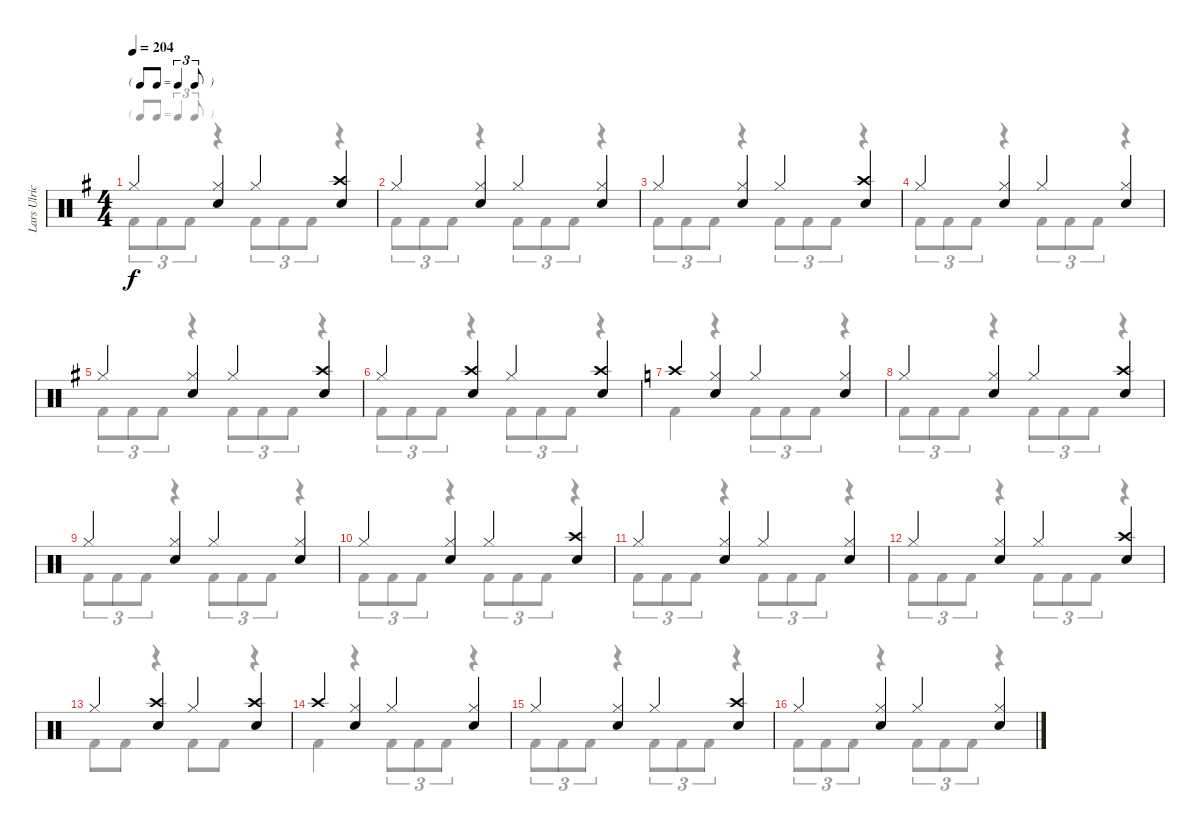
\track ("Lars Ulrich" "Lars Ulric") {instrument percussion}
\staff {score}
\articulation defaults
\voice
\ts (4 4)
\tf triplet8th
\tempo 204
\clef neutral
\ks eminor "Hi-Hat (closed)".4{dy f}
("Hi-Hat (closed)" "Snare (hit) 2").4 "Hi-Hat (closed)".4 ("Crash high (hit)" "Snare (hit) 2").4 |
"Hi-Hat (closed)".4 ("Hi-Hat (closed)" "Snare (hit) 2").4 "Hi-Hat (closed)".4 ("Hi-Hat (closed)" "Snare (hit) 2").4 |
"Hi-Hat (closed)".4 ("Hi-Hat (closed)" "Snare (hit) 2").4 "Hi-Hat (closed)".4 ("Crash high (hit)" "Snare (hit) 2").4 |
"Hi-Hat (closed)".4 ("Hi-Hat (closed)" "Snare (hit) 2").4 "Hi-Hat (closed)".4 ("Hi-Hat (closed)" "Snare (hit) 2").4 |
"Hi-Hat (closed)".4 ("Hi-Hat (closed)" "Snare (hit) 2").4 "Hi-Hat (closed)".4 ("Crash high (hit)" "Snare (hit) 2").4 |
"Hi-Hat (closed)".4 ("Crash high (hit)" "Snare (hit) 2").4 "Hi-Hat (closed)".4 ("Crash high (hit)" "Snare (hit) 2").4 |
\ks c "Crash high (hit)".4
("Hi-Hat (closed)" "Snare (hit) 2").4 "Hi-Hat (closed)".4 ("Hi-Hat (closed)" "Snare (hit) 2").4 |
"Hi-Hat (closed)".4 ("Hi-Hat (closed)" "Snare (hit) 2").4 "Hi-Hat (closed)".4 ("Crash high (hit)" "Snare (hit) 2").4 |
"Hi-Hat (closed)".4 ("Hi-Hat (closed)" "Snare (hit) 2").4 "Hi-Hat (closed)".4 ("Hi-Hat (closed)" "Snare (hit) 2").4 |
"Hi-Hat (closed)".4 ("Hi-Hat (closed)" "Snare (hit) 2").4 "Hi-Hat (closed)".4 ("Crash high (hit)" "Snare (hit) 2").4 |
"Hi-Hat (closed)".4 ("Hi-Hat (closed)" "Snare (hit) 2").4 "Hi-Hat (closed)".4 ("Hi-Hat (closed)" "Snare (hit) 2").4 |
"Hi-Hat (closed)".4 ("Hi-Hat (closed)" "Snare (hit) 2").4 "Hi-Hat (closed)".4 ("Crash high (hit)" "Snare (hit) 2").4 |
"Hi-Hat (closed)".4 ("Crash high (hit)" "Snare (hit) 2").4 "Hi-Hat (closed)".4 ("Crash high (hit)" "Snare (hit) 2").4 |
"Crash high (hit)".4 ("Hi-Hat (closed)" "Snare (hit) 2").4 "Hi-Hat (closed)".4 ("Hi-Hat (closed)" "Snare (hit) 2").4 |
"Hi-Hat (closed)".4 ("Hi-Hat (closed)" "Snare (hit) 2").4 "Hi-Hat (closed)".4 ("Crash high (hit)" "Snare (hit) 2").4 |
"Hi-Hat (closed)".4 ("Hi-Hat (closed)" "Snare (hit) 2").4 "Hi-Hat (closed)".4 ("Hi-Hat (closed)" "Snare (hit) 2").4
\voice
\clef neutral
\ottava regular
\simile none
\ks eminor "Kick (hit) 2".8{tu (3 2) dy f} "Kick (hit) 2".8{tu (3 2)} "Kick (hit) 2".8{tu (3 2)}
r.4 "Kick (hit) 2".8{tu (3 2)} "Kick (hit) 2".8{tu (3 2)} "Kick (hit) 2".8{tu (3 2)} r.4 |
"Kick (hit) 2".8{tu (3 2)} "Kick (hit) 2".8{tu (3 2)} "Kick (hit) 2".8{tu (3 2)} r.4 "Kick (hit) 2".8{tu (3 2)} "Kick (hit) 2".8{tu (3 2)} "Kick (hit) 2".8{tu (3 2)} r.4 |
"Kick (hit) 2".8{tu (3 2)} "Kick (hit) 2".8{tu (3 2)} "Kick (hit) 2".8{tu (3 2)} r.4 "Kick (hit) 2".8{tu (3 2)} "Kick (hit) 2".8{tu (3 2)} "Kick (hit) 2".8{tu (3 2)} r.4 |
"Kick (hit) 2".8{tu (3 2)} "Kick (hit) 2".8{tu (3 2)} "Kick (hit) 2".8{tu (3 2)} r.4 "Kick (hit) 2".8{tu (3 2)} "Kick (hit) 2".8{tu (3 2)} "Kick (hit) 2".8{tu (3 2)} r.4 |
"Kick (hit) 2".8{tu (3 2)} "Kick (hit) 2".8{tu (3 2)} "Kick (hit) 2".8{tu (3 2)} r.4 "Kick (hit) 2".8{tu (3 2)} "Kick (hit) 2".8{tu (3 2)} "Kick (hit) 2".8{tu (3 2)} r.4 |
"Kick (hit) 2".8{tu (3 2)} "Kick (hit) 2".8{tu (3 2)} "Kick (hit) 2".8{tu (3 2)} r.4 "Kick (hit) 2".8{tu (3 2)} "Kick (hit) 2".8{tu (3 2)} "Kick (hit) 2".8{tu (3 2)} r.4 |
\ks c "Kick (hit) 2".4
r.4 "Kick (hit) 2".8{tu (3 2)} "Kick (hit) 2".8{tu (3 2)} "Kick (hit) 2".8{tu (3 2)} r.4 |
"Kick (hit) 2".8{tu (3 2)} "Kick (hit) 2".8{tu (3 2)} "Kick (hit) 2".8{tu (3 2)} r.4 "Kick (hit) 2".8{tu (3 2)} "Kick (hit) 2".8{tu (3 2)} "Kick (hit) 2".8{tu (3 2)} r.4 |
"Kick (hit) 2".8{tu (3 2)} "Kick (hit) 2".8{tu (3 2)} "Kick (hit) 2".8{tu (3 2)} r.4 "Kick (hit) 2".8{tu (3 2)} "Kick (hit) 2".8{tu (3 2)} "Kick (hit) 2".8{tu (3 2)} r.4 |
"Kick (hit) 2".8{tu (3 2)} "Kick (hit) 2".8{tu (3 2)} "Kick (hit) 2".8{tu (3 2)} r.4 "Kick (hit) 2".8{tu (3 2)} "Kick (hit) 2".8{tu (3 2)} "Kick (hit) 2".8{tu (3 2)} r.4 |
"Kick (hit) 2".8{tu (3 2)} "Kick (hit) 2".8{tu (3 2)} "Kick (hit) 2".8{tu (3 2)} r.4 "Kick (hit) 2".8{tu (3 2)} "Kick (hit) 2".8{tu (3 2)} "Kick (hit) 2".8{tu (3 2)} r.4 |
"Kick (hit) 2".8{tu (3 2)} "Kick (hit) 2".8{tu (3 2)} "Kick (hit) 2".8{tu (3 2)} r.4 "Kick (hit) 2".8{tu (3 2)} "Kick (hit) 2".8{tu (3 2)} "Kick (hit) 2".8{tu (3 2)} r.4 |
"Kick (hit) 2".8 "Kick (hit) 2".8 r.4 "Kick (hit) 2".8 "Kick (hit) 2".8 r.4 |
"Kick (hit) 2".4 r.4 "Kick (hit) 2".8{tu (3 2)} "Kick (hit) 2".8{tu (3 2)} "Kick (hit) 2".8{tu (3 2)} r.4 |
"Kick (hit) 2".8{tu (3 2)} "Kick (hit) 2".8{tu (3 2)} "Kick (hit) 2".8{tu (3 2)} r.4 "Kick (hit) 2".8{tu (3 2)} "Kick (hit) 2".8{tu (3 2)} "Kick (hit) 2".8{tu (3 2)} r.4 |
"Kick (hit) 2".8{tu (3 2)} "Kick (hit) 2".8{tu (3 2)} "Kick (hit) 2".8{tu (3 2)} r.4 "Kick (hit) 2".8{tu (3 2)} "Kick (hit) 2".8{tu (3 2)} "Kick (hit) 2".8{tu (3 2)} r.4
